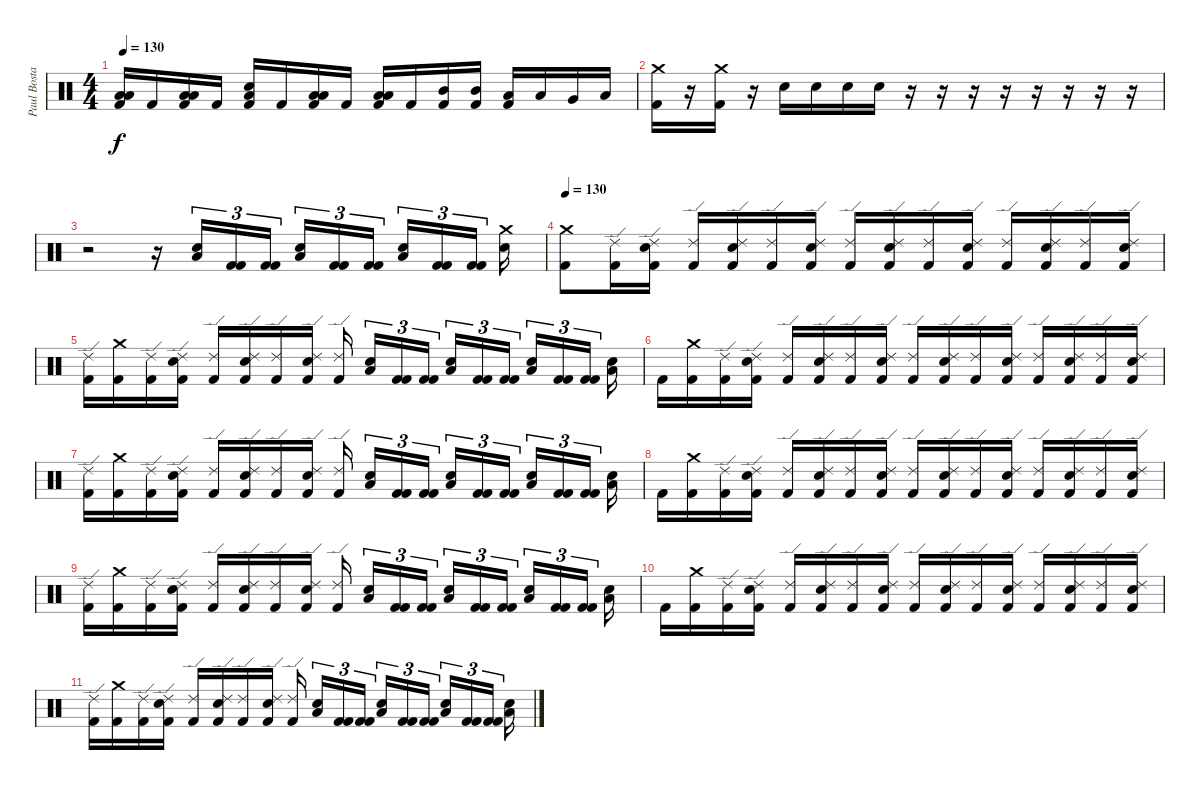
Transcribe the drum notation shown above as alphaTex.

\track ("Paul Bostaph" "Paul Bosta") {instrument percussion}
\staff {score}
\articulation defaults
\ts (4 4)
\tempo 130
\clef neutral
\ks c
("Low Floor Tom (hit)" "Low Floor Tom (hit)" "Kick (hit) 2").16{dy f} "Kick (hit) 2".16 ("Low Floor Tom (hit)" "Low Floor Tom (hit)" "Kick (hit) 2").16 "Kick (hit) 2".16 ("Low Floor Tom (hit)" "Snare (hit) 2" "Kick (hit) 2").16 "Kick (hit) 2".16 ("Low Floor Tom (hit)" "Low Floor Tom (hit)" "Kick (hit) 2").16 "Kick (hit) 2".16 ("Low Floor Tom (hit)" "Low Floor Tom (hit)" "Kick (hit) 2").16 "Kick (hit) 2".16 ("Mid Tom (hit)" "Kick (hit) 2").16 ("Mid Tom (hit)" "Kick (hit) 2").16 ("Low Tom (hit)" "Kick (hit) 2").16 "Low Tom (hit)".16 "Very Low Tom (hit)".16 "Low Floor Tom (hit)".16 |
("Crash medium (hit)" "Kick (hit) 2").16 r.16 ("Crash medium (hit)" "Kick (hit) 2").16 r.16 "Snare (hit) 2".16 "Snare (hit) 2".16 "Snare (hit) 2".16 "Snare (hit) 2".16 r.16 r.16 r.16 r.16 r.16 r.16 r.16 r.16 |
r.2 r.16 ("Snare (hit) 2" "Low Floor Tom (hit)").16{tu (3 2)} ("Kick (hit) 2" "Kick (hit) 2").16{tu (3 2)} ("Kick (hit) 2" "Kick (hit) 2").16{tu (3 2) beam splitsecondary} ("Snare (hit) 2" "Low Floor Tom (hit)").16{tu (3 2)} ("Kick (hit) 2" "Kick (hit) 2").16{tu (3 2)} ("Kick (hit) 2" "Kick (hit) 2").16{tu (3 2) beam splitsecondary} ("Snare (hit) 2" "Low Floor Tom (hit)").16{tu (3 2)} ("Kick (hit) 2" "Kick (hit) 2").16{tu (3 2)} ("Kick (hit) 2" "Kick (hit) 2").16{tu (3 2) beam splitsecondary} ("Crash medium (hit)" "Snare (hit) 2").16 |
\tempo 130
("Crash medium (hit)" "Kick (hit) 2").8 ("Ride (edge) 2" "Kick (hit) 2").16 ("Ride (edge) 2" "Snare (hit) 2" "Kick (hit) 2").16 ("Ride (edge) 2" "Kick (hit) 2").16 ("Ride (edge) 2" "Snare (hit) 2" "Kick (hit) 2").16 ("Ride (edge) 2" "Kick (hit) 2").16 ("Ride (edge) 2" "Snare (hit) 2" "Kick (hit) 2").16 ("Ride (edge) 2" "Kick (hit) 2").16 ("Ride (edge) 2" "Snare (hit) 2" "Kick (hit) 2").16 ("Ride (edge) 2" "Kick (hit) 2").16 ("Ride (edge) 2" "Snare (hit) 2" "Kick (hit) 2").16 ("Ride (edge) 2" "Kick (hit) 2").16 ("Ride (edge) 2" "Snare (hit) 2" "Kick (hit) 2").16 ("Ride (edge) 2" "Kick (hit) 2").16 ("Ride (edge) 2" "Snare (hit) 2" "Kick (hit) 2").16 |
("Ride (edge) 2" "Kick (hit) 2").16 ("Crash medium (hit)" "Kick (hit) 2").16 ("Ride (edge) 2" "Kick (hit) 2").16 ("Ride (edge) 2" "Snare (hit) 2" "Kick (hit) 2").16 ("Ride (edge) 2" "Kick (hit) 2").16 ("Ride (edge) 2" "Snare (hit) 2" "Kick (hit) 2").16 ("Ride (edge) 2" "Kick (hit) 2").16 ("Ride (edge) 2" "Snare (hit) 2" "Kick (hit) 2").16 ("Ride (edge) 2" "Kick (hit) 2").16{beam splitsecondary} ("Snare (hit) 2" "Low Floor Tom (hit)").16{tu (3 2)} ("Kick (hit) 2" "Kick (hit) 2").16{tu (3 2)} ("Kick (hit) 2" "Kick (hit) 2").16{tu (3 2) beam splitsecondary} ("Snare (hit) 2" "Low Floor Tom (hit)").16{tu (3 2)} ("Kick (hit) 2" "Kick (hit) 2").16{tu (3 2)} ("Kick (hit) 2" "Kick (hit) 2").16{tu (3 2) beam splitsecondary} ("Snare (hit) 2" "Low Floor Tom (hit)").16{tu (3 2)} ("Kick (hit) 2" "Kick (hit) 2").16{tu (3 2)} ("Kick (hit) 2" "Kick (hit) 2").16{tu (3 2) beam splitsecondary} ("Snare (hit) 2" "Low Floor Tom (hit)").16 |
"Kick (hit) 2".16 ("Crash medium (hit)" "Kick (hit) 2").16 ("Ride (edge) 2" "Kick (hit) 2").16 ("Ride (edge) 2" "Snare (hit) 2" "Kick (hit) 2").16 ("Ride (edge) 2" "Kick (hit) 2").16 ("Ride (edge) 2" "Snare (hit) 2" "Kick (hit) 2").16 ("Ride (edge) 2" "Kick (hit) 2").16 ("Ride (edge) 2" "Snare (hit) 2" "Kick (hit) 2").16 ("Ride (edge) 2" "Kick (hit) 2").16 ("Ride (edge) 2" "Snare (hit) 2" "Kick (hit) 2").16 ("Ride (edge) 2" "Kick (hit) 2").16 ("Ride (edge) 2" "Snare (hit) 2" "Kick (hit) 2").16 ("Ride (edge) 2" "Kick (hit) 2").16 ("Ride (edge) 2" "Snare (hit) 2" "Kick (hit) 2").16 ("Ride (edge) 2" "Kick (hit) 2").16 ("Ride (edge) 2" "Snare (hit) 2" "Kick (hit) 2").16 |
("Ride (edge) 2" "Kick (hit) 2").16 ("Crash medium (hit)" "Kick (hit) 2").16 ("Ride (edge) 2" "Kick (hit) 2").16 ("Ride (edge) 2" "Snare (hit) 2" "Kick (hit) 2").16 ("Ride (edge) 2" "Kick (hit) 2").16 ("Ride (edge) 2" "Snare (hit) 2" "Kick (hit) 2").16 ("Ride (edge) 2" "Kick (hit) 2").16 ("Ride (edge) 2" "Snare (hit) 2" "Kick (hit) 2").16 ("Ride (edge) 2" "Kick (hit) 2").16{beam splitsecondary} ("Snare (hit) 2" "Low Floor Tom (hit)").16{tu (3 2)} ("Kick (hit) 2" "Kick (hit) 2").16{tu (3 2)} ("Kick (hit) 2" "Kick (hit) 2").16{tu (3 2) beam splitsecondary} ("Snare (hit) 2" "Low Floor Tom (hit)").16{tu (3 2)} ("Kick (hit) 2" "Kick (hit) 2").16{tu (3 2)} ("Kick (hit) 2" "Kick (hit) 2").16{tu (3 2) beam splitsecondary} ("Snare (hit) 2" "Low Floor Tom (hit)").16{tu (3 2)} ("Kick (hit) 2" "Kick (hit) 2").16{tu (3 2)} ("Kick (hit) 2" "Kick (hit) 2").16{tu (3 2) beam splitsecondary} ("Snare (hit) 2" "Low Floor Tom (hit)").16 |
"Kick (hit) 2".16 ("Crash medium (hit)" "Kick (hit) 2").16 ("Ride (edge) 2" "Kick (hit) 2").16 ("Ride (edge) 2" "Snare (hit) 2" "Kick (hit) 2").16 ("Ride (edge) 2" "Kick (hit) 2").16 ("Ride (edge) 2" "Snare (hit) 2" "Kick (hit) 2").16 ("Ride (edge) 2" "Kick (hit) 2").16 ("Ride (edge) 2" "Snare (hit) 2" "Kick (hit) 2").16 ("Ride (edge) 2" "Kick (hit) 2").16 ("Ride (edge) 2" "Snare (hit) 2" "Kick (hit) 2").16 ("Ride (edge) 2" "Kick (hit) 2").16 ("Ride (edge) 2" "Snare (hit) 2" "Kick (hit) 2").16 ("Ride (edge) 2" "Kick (hit) 2").16 ("Ride (edge) 2" "Snare (hit) 2" "Kick (hit) 2").16 ("Ride (edge) 2" "Kick (hit) 2").16 ("Ride (edge) 2" "Snare (hit) 2" "Kick (hit) 2").16 |
("Ride (edge) 2" "Kick (hit) 2").16 ("Crash medium (hit)" "Kick (hit) 2").16 ("Ride (edge) 2" "Kick (hit) 2").16 ("Ride (edge) 2" "Snare (hit) 2" "Kick (hit) 2").16 ("Ride (edge) 2" "Kick (hit) 2").16 ("Ride (edge) 2" "Snare (hit) 2" "Kick (hit) 2").16 ("Ride (edge) 2" "Kick (hit) 2").16 ("Ride (edge) 2" "Snare (hit) 2" "Kick (hit) 2").16 ("Ride (edge) 2" "Kick (hit) 2").16{beam splitsecondary} ("Snare (hit) 2" "Low Floor Tom (hit)").16{tu (3 2)} ("Kick (hit) 2" "Kick (hit) 2").16{tu (3 2)} ("Kick (hit) 2" "Kick (hit) 2").16{tu (3 2) beam splitsecondary} ("Snare (hit) 2" "Low Floor Tom (hit)").16{tu (3 2)} ("Kick (hit) 2" "Kick (hit) 2").16{tu (3 2)} ("Kick (hit) 2" "Kick (hit) 2").16{tu (3 2) beam splitsecondary} ("Snare (hit) 2" "Low Floor Tom (hit)").16{tu (3 2)} ("Kick (hit) 2" "Kick (hit) 2").16{tu (3 2)} ("Kick (hit) 2" "Kick (hit) 2").16{tu (3 2) beam splitsecondary} ("Snare (hit) 2" "Low Floor Tom (hit)").16 |
"Kick (hit) 2".16 ("Crash medium (hit)" "Kick (hit) 2").16 ("Ride (edge) 2" "Kick (hit) 2").16 ("Ride (edge) 2" "Snare (hit) 2" "Kick (hit) 2").16 ("Ride (edge) 2" "Kick (hit) 2").16 ("Ride (edge) 2" "Snare (hit) 2" "Kick (hit) 2").16 ("Ride (edge) 2" "Kick (hit) 2").16 ("Ride (edge) 2" "Snare (hit) 2" "Kick (hit) 2").16 ("Ride (edge) 2" "Kick (hit) 2").16 ("Ride (edge) 2" "Snare (hit) 2" "Kick (hit) 2").16 ("Ride (edge) 2" "Kick (hit) 2").16 ("Ride (edge) 2" "Snare (hit) 2" "Kick (hit) 2").16 ("Ride (edge) 2" "Kick (hit) 2").16 ("Ride (edge) 2" "Snare (hit) 2" "Kick (hit) 2").16 ("Ride (edge) 2" "Kick (hit) 2").16 ("Ride (edge) 2" "Snare (hit) 2" "Kick (hit) 2").16 |
("Ride (edge) 2" "Kick (hit) 2").16 ("Crash medium (hit)" "Kick (hit) 2").16 ("Ride (edge) 2" "Kick (hit) 2").16 ("Ride (edge) 2" "Snare (hit) 2" "Kick (hit) 2").16 ("Ride (edge) 2" "Kick (hit) 2").16 ("Ride (edge) 2" "Snare (hit) 2" "Kick (hit) 2").16 ("Ride (edge) 2" "Kick (hit) 2").16 ("Ride (edge) 2" "Snare (hit) 2" "Kick (hit) 2").16 ("Ride (edge) 2" "Kick (hit) 2").16{beam splitsecondary} ("Snare (hit) 2" "Low Floor Tom (hit)").16{tu (3 2)} ("Kick (hit) 2" "Kick (hit) 2").16{tu (3 2)} ("Kick (hit) 2" "Kick (hit) 2").16{tu (3 2) beam splitsecondary} ("Snare (hit) 2" "Low Floor Tom (hit)").16{tu (3 2)} ("Kick (hit) 2" "Kick (hit) 2").16{tu (3 2)} ("Kick (hit) 2" "Kick (hit) 2").16{tu (3 2) beam splitsecondary} ("Snare (hit) 2" "Low Floor Tom (hit)").16{tu (3 2)} ("Kick (hit) 2" "Kick (hit) 2").16{tu (3 2)} ("Kick (hit) 2" "Kick (hit) 2").16{tu (3 2) beam splitsecondary} ("Snare (hit) 2" "Low Floor Tom (hit)").16
